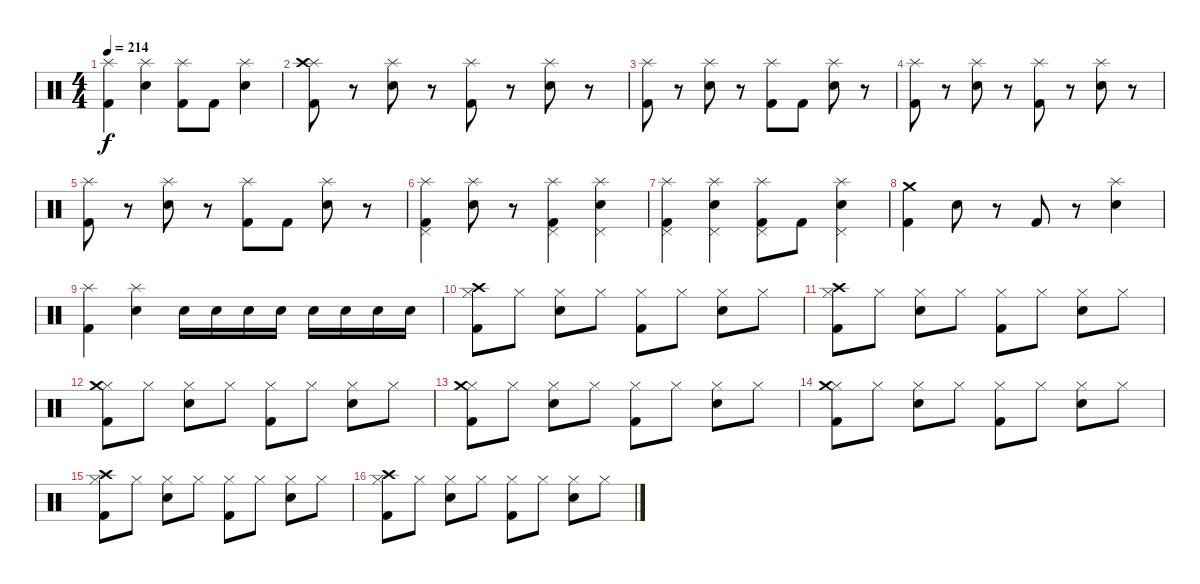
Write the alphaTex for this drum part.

\track "" {instrument percussion}
\staff {score}
\articulation defaults
\ts (4 4)
\tempo 214
\clef neutral
\ks c
("Splash (hit)" "Kick (hit) 2").4{dy f} ("Splash (hit)" "Electric Snare (hit)").4 ("Splash (hit)" "Kick (hit) 2").8 "Kick (hit) 2".8 ("Splash (hit)" "Electric Snare (hit)").4 |
("Splash (hit)" "Crash high (hit)" "Kick (hit) 2").8 r.8 ("Splash (hit)" "Electric Snare (hit)").8 r.8 ("Splash (hit)" "Kick (hit) 2").8 r.8 ("Splash (hit)" "Electric Snare (hit)").8 r.8 |
("Splash (hit)" "Kick (hit) 2").8 r.8 ("Splash (hit)" "Electric Snare (hit)").8 r.8 ("Splash (hit)" "Kick (hit) 2").8 "Kick (hit) 2".8 ("Splash (hit)" "Electric Snare (hit)").8 r.8 |
("Splash (hit)" "Kick (hit) 2").8 r.8 ("Splash (hit)" "Electric Snare (hit)").8 r.8 ("Splash (hit)" "Kick (hit) 2").8 r.8 ("Splash (hit)" "Electric Snare (hit)").8 r.8 |
("Splash (hit)" "Kick (hit) 2").8 r.8 ("Splash (hit)" "Electric Snare (hit)").8 r.8 ("Splash (hit)" "Kick (hit) 2").8 "Kick (hit) 2".8 ("Splash (hit)" "Electric Snare (hit)").8 r.8 |
("Splash (hit)" "Pedal Hi-Hat (hit)" "Kick (hit) 2").4 ("Splash (hit)" "Electric Snare (hit)").8 r.8 ("Splash (hit)" "Pedal Hi-Hat (hit)" "Kick (hit) 2").4 ("Splash (hit)" "Pedal Hi-Hat (hit)" "Electric Snare (hit)").4 |
("Splash (hit)" "Pedal Hi-Hat (hit)" "Kick (hit) 2").4 ("Splash (hit)" "Pedal Hi-Hat (hit)" "Electric Snare (hit)").4 ("Splash (hit)" "Pedal Hi-Hat (hit)" "Kick (hit) 2").8 "Kick (hit) 2".8 ("Splash (hit)" "Pedal Hi-Hat (hit)" "Electric Snare (hit)").4 |
("Crash medium (hit)" "Kick (hit) 2").4 "Electric Snare (hit)".8 r.8 "Kick (hit) 2".8 r.8 ("Splash (hit)" "Electric Snare (hit)").4 |
("Splash (hit)" "Kick (hit) 2").4 ("Splash (hit)" "Electric Snare (hit)").4 "Electric Snare (hit)".16 "Electric Snare (hit)".16 "Electric Snare (hit)".16 "Electric Snare (hit)".16 "Electric Snare (hit)".16 "Electric Snare (hit)".16 "Electric Snare (hit)".16 "Electric Snare (hit)".16 |
("Hi-Hat (closed)" "Crash high (hit)" "Kick (hit) 2").8 "Hi-Hat (closed)".8 ("Hi-Hat (closed)" "Electric Snare (hit)").8 "Hi-Hat (closed)".8 ("Hi-Hat (closed)" "Kick (hit) 2").8 "Hi-Hat (closed)".8 ("Hi-Hat (closed)" "Electric Snare (hit)").8 "Hi-Hat (closed)".8 |
("Hi-Hat (closed)" "Crash high (hit)" "Kick (hit) 2").8 "Hi-Hat (closed)".8 ("Hi-Hat (closed)" "Electric Snare (hit)").8 "Hi-Hat (closed)".8 ("Hi-Hat (closed)" "Kick (hit) 2").8 "Hi-Hat (closed)".8 ("Hi-Hat (closed)" "Electric Snare (hit)").8 "Hi-Hat (closed)".8 |
("Hi-Hat (closed)" "Crash medium (hit)" "Kick (hit) 2").8 "Hi-Hat (closed)".8 ("Hi-Hat (closed)" "Electric Snare (hit)").8 "Hi-Hat (closed)".8 ("Hi-Hat (closed)" "Kick (hit) 2").8 "Hi-Hat (closed)".8 ("Hi-Hat (closed)" "Electric Snare (hit)").8 "Hi-Hat (closed)".8 |
("Hi-Hat (closed)" "Crash medium (hit)" "Kick (hit) 2").8 "Hi-Hat (closed)".8 ("Hi-Hat (closed)" "Electric Snare (hit)").8 "Hi-Hat (closed)".8 ("Hi-Hat (closed)" "Kick (hit) 2").8 "Hi-Hat (closed)".8 ("Hi-Hat (closed)" "Electric Snare (hit)").8 "Hi-Hat (closed)".8 |
("Hi-Hat (closed)" "Kick (hit) 2" "Crash medium (hit)").8 "Hi-Hat (closed)".8 ("Hi-Hat (closed)" "Electric Snare (hit)").8 "Hi-Hat (closed)".8 ("Hi-Hat (closed)" "Kick (hit) 2").8 "Hi-Hat (closed)".8 ("Hi-Hat (closed)" "Electric Snare (hit)").8 "Hi-Hat (closed)".8 |
("Hi-Hat (closed)" "Kick (hit) 2" "Crash high (hit)").8 "Hi-Hat (closed)".8 ("Hi-Hat (closed)" "Electric Snare (hit)").8 "Hi-Hat (closed)".8 ("Hi-Hat (closed)" "Kick (hit) 2").8 "Hi-Hat (closed)".8 ("Hi-Hat (closed)" "Electric Snare (hit)").8 "Hi-Hat (closed)".8 |
("Hi-Hat (closed)" "Kick (hit) 2" "Crash high (hit)").8 "Hi-Hat (closed)".8 ("Hi-Hat (closed)" "Electric Snare (hit)").8 "Hi-Hat (closed)".8 ("Hi-Hat (closed)" "Kick (hit) 2").8 "Hi-Hat (closed)".8 ("Hi-Hat (closed)" "Electric Snare (hit)").8 "Hi-Hat (closed)".8
